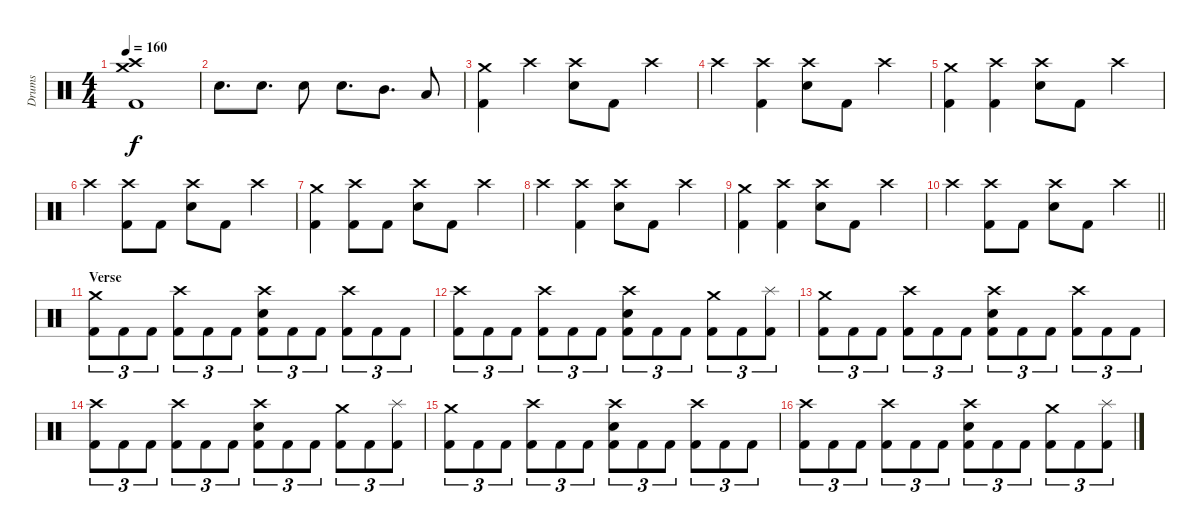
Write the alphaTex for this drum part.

\track ("Drums" "Drums") {instrument percussion}
\staff {score}
\articulation defaults
\ts (4 4)
\tempo 160
\clef neutral
\ks c
("Crash medium (hit)" "Crash high (hit)" "Kick (hit) 2").1{dy f} |
"Electric Snare (hit)".8{d} "Electric Snare (hit)".8{d} "Electric Snare (hit)".8 "Electric Snare (hit)".8{d} "Mid Tom (hit)".8{d} "Low Tom (hit)".8 |
("Crash medium (hit)" "Kick (hit) 2").4 "Crash high (hit)".4 ("Crash high (hit)" "Electric Snare (hit)").8 "Kick (hit) 2".8 "Crash high (hit)".4 |
"Crash high (hit)".4 ("Crash high (hit)" "Kick (hit) 2").4 ("Crash high (hit)" "Electric Snare (hit)").8 "Kick (hit) 2".8 "Crash high (hit)".4 |
("Crash medium (hit)" "Kick (hit) 2").4 ("Crash high (hit)" "Kick (hit) 2").4 ("Crash high (hit)" "Electric Snare (hit)").8 "Kick (hit) 2".8 "Crash high (hit)".4 |
"Crash high (hit)".4 ("Crash high (hit)" "Kick (hit) 2").8 "Kick (hit) 2".8 ("Crash high (hit)" "Electric Snare (hit)").8 "Kick (hit) 2".8 "Crash high (hit)".4 |
("Crash medium (hit)" "Kick (hit) 2").4 ("Crash high (hit)" "Kick (hit) 2").8 "Kick (hit) 2".8 ("Crash high (hit)" "Electric Snare (hit)").8 "Kick (hit) 2".8 "Crash high (hit)".4 |
"Crash high (hit)".4 ("Crash high (hit)" "Kick (hit) 2").4 ("Crash high (hit)" "Electric Snare (hit)").8 "Kick (hit) 2".8 "Crash high (hit)".4 |
("Crash medium (hit)" "Kick (hit) 2").4 ("Crash high (hit)" "Kick (hit) 2").4 ("Crash high (hit)" "Electric Snare (hit)").8 "Kick (hit) 2".8 "Crash high (hit)".4 |
\barLineRight lightlight "Crash high (hit)".4
("Crash high (hit)" "Kick (hit) 2").8 "Kick (hit) 2".8 ("Crash high (hit)" "Electric Snare (hit)").8 "Kick (hit) 2".8 "Crash high (hit)".4 |
\section ("" "Verse")
("Crash medium (hit)" "Kick (hit) 2").8{tu (3 2)} "Kick (hit) 2".8{tu (3 2)} "Kick (hit) 2".8{tu (3 2)} ("Crash high (hit)" "Kick (hit) 2").8{tu (3 2)} "Kick (hit) 2".8{tu (3 2)} "Kick (hit) 2".8{tu (3 2)} ("Crash high (hit)" "Electric Snare (hit)" "Kick (hit) 2").8{tu (3 2)} "Kick (hit) 2".8{tu (3 2)} "Kick (hit) 2".8{tu (3 2)} ("Crash high (hit)" "Kick (hit) 2").8{tu (3 2)} "Kick (hit) 2".8{tu (3 2)} "Kick (hit) 2".8{tu (3 2)} |
("Crash high (hit)" "Kick (hit) 2").8{tu (3 2)} "Kick (hit) 2".8{tu (3 2)} "Kick (hit) 2".8{tu (3 2)} ("Crash high (hit)" "Kick (hit) 2").8{tu (3 2)} "Kick (hit) 2".8{tu (3 2)} "Kick (hit) 2".8{tu (3 2)} ("Crash high (hit)" "Electric Snare (hit)" "Kick (hit) 2").8{tu (3 2)} "Kick (hit) 2".8{tu (3 2)} "Kick (hit) 2".8{tu (3 2)} ("Crash medium (hit)" "Kick (hit) 2").8{tu (3 2)} "Kick (hit) 2".8{tu (3 2)} ("Splash (hit)" "Kick (hit) 2").8{tu (3 2)} |
("Crash medium (hit)" "Kick (hit) 2").8{tu (3 2)} "Kick (hit) 2".8{tu (3 2)} "Kick (hit) 2".8{tu (3 2)} ("Crash high (hit)" "Kick (hit) 2").8{tu (3 2)} "Kick (hit) 2".8{tu (3 2)} "Kick (hit) 2".8{tu (3 2)} ("Crash high (hit)" "Electric Snare (hit)" "Kick (hit) 2").8{tu (3 2)} "Kick (hit) 2".8{tu (3 2)} "Kick (hit) 2".8{tu (3 2)} ("Crash high (hit)" "Kick (hit) 2").8{tu (3 2)} "Kick (hit) 2".8{tu (3 2)} "Kick (hit) 2".8{tu (3 2)} |
("Crash high (hit)" "Kick (hit) 2").8{tu (3 2)} "Kick (hit) 2".8{tu (3 2)} "Kick (hit) 2".8{tu (3 2)} ("Crash high (hit)" "Kick (hit) 2").8{tu (3 2)} "Kick (hit) 2".8{tu (3 2)} "Kick (hit) 2".8{tu (3 2)} ("Crash high (hit)" "Electric Snare (hit)" "Kick (hit) 2").8{tu (3 2)} "Kick (hit) 2".8{tu (3 2)} "Kick (hit) 2".8{tu (3 2)} ("Crash medium (hit)" "Kick (hit) 2").8{tu (3 2)} "Kick (hit) 2".8{tu (3 2)} ("Splash (hit)" "Kick (hit) 2").8{tu (3 2)} |
("Crash medium (hit)" "Kick (hit) 2").8{tu (3 2)} "Kick (hit) 2".8{tu (3 2)} "Kick (hit) 2".8{tu (3 2)} ("Crash high (hit)" "Kick (hit) 2").8{tu (3 2)} "Kick (hit) 2".8{tu (3 2)} "Kick (hit) 2".8{tu (3 2)} ("Crash high (hit)" "Electric Snare (hit)" "Kick (hit) 2").8{tu (3 2)} "Kick (hit) 2".8{tu (3 2)} "Kick (hit) 2".8{tu (3 2)} ("Crash high (hit)" "Kick (hit) 2").8{tu (3 2)} "Kick (hit) 2".8{tu (3 2)} "Kick (hit) 2".8{tu (3 2)} |
("Crash high (hit)" "Kick (hit) 2").8{tu (3 2)} "Kick (hit) 2".8{tu (3 2)} "Kick (hit) 2".8{tu (3 2)} ("Crash high (hit)" "Kick (hit) 2").8{tu (3 2)} "Kick (hit) 2".8{tu (3 2)} "Kick (hit) 2".8{tu (3 2)} ("Crash high (hit)" "Electric Snare (hit)" "Kick (hit) 2").8{tu (3 2)} "Kick (hit) 2".8{tu (3 2)} "Kick (hit) 2".8{tu (3 2)} ("Crash medium (hit)" "Kick (hit) 2").8{tu (3 2)} "Kick (hit) 2".8{tu (3 2)} ("Splash (hit)" "Kick (hit) 2").8{tu (3 2)}
